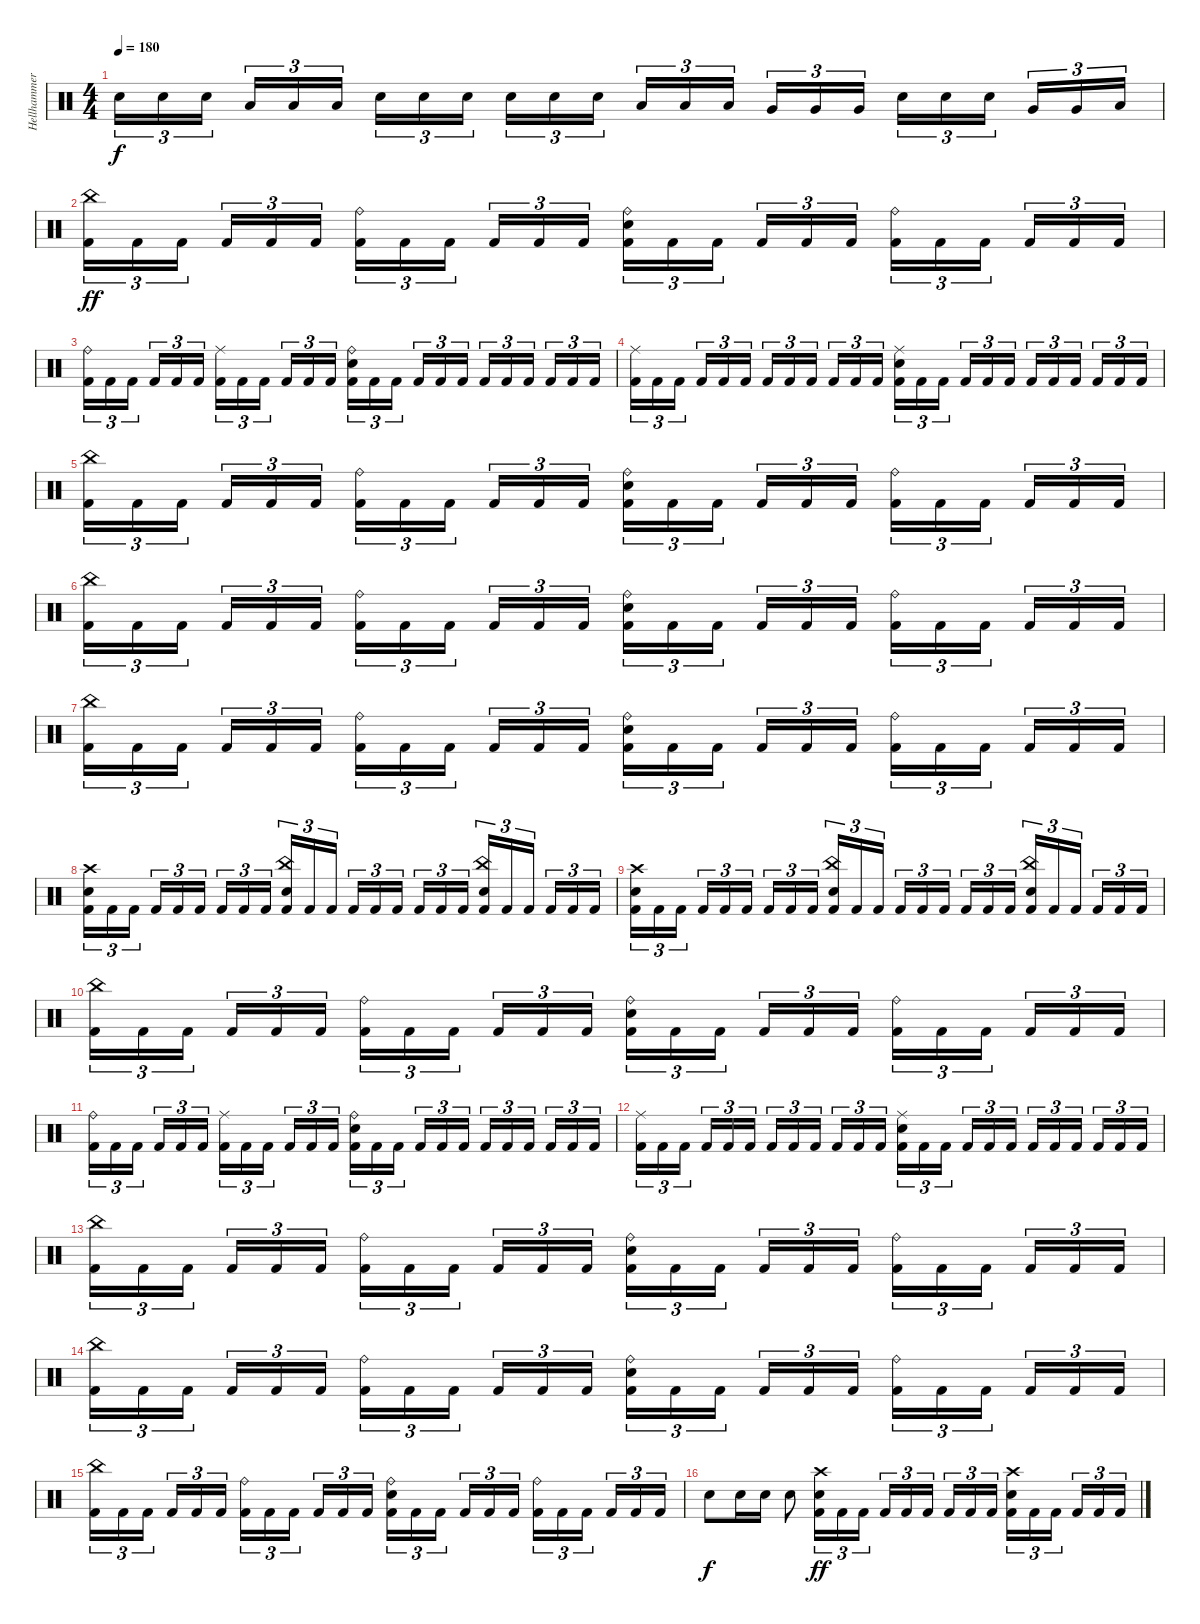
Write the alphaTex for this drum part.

\track ("Hellhammer" "Hellhammer") {instrument percussion}
\staff {score}
\articulation defaults
\ts (4 4)
\tempo 180
\clef neutral
\ks c "Electric Snare (hit)".16{tu (3 2) dy f} "Electric Snare (hit)".16{tu (3 2)} "Electric Snare (hit)".16{tu (3 2) beam splitsecondary} "Low Tom (hit)".16{tu (3 2)} "Low Tom (hit)".16{tu (3 2)} "Low Tom (hit)".16{tu (3 2)} "Electric Snare (hit)".16{tu (3 2)} "Electric Snare (hit)".16{tu (3 2)} "Electric Snare (hit)".16{tu (3 2) beam splitsecondary} "Electric Snare (hit)".16{tu (3 2)} "Electric Snare (hit)".16{tu (3 2)} "Electric Snare (hit)".16{tu (3 2)} "Low Tom (hit)".16{tu (3 2)} "Low Tom (hit)".16{tu (3 2)} "Low Tom (hit)".16{tu (3 2) beam splitsecondary} "Very Low Tom (hit)".16{tu (3 2)} "Very Low Tom (hit)".16{tu (3 2)} "Very Low Tom (hit)".16{tu (3 2)} "Electric Snare (hit)".16{tu (3 2)} "Electric Snare (hit)".16{tu (3 2)} "Electric Snare (hit)".16{tu (3 2) beam splitsecondary} "Very Low Tom (hit)".16{tu (3 2)} "Very Low Tom (hit)".16{tu (3 2)} "Low Floor Tom (hit)".16{tu (3 2)}
|
("China (hit)" "Kick (hit) 2").16{tu (3 2) dy ff} "Kick (hit) 2".16{tu (3 2)} "Kick (hit) 2".16{tu (3 2) beam splitsecondary} "Kick (hit) 2".16{tu (3 2)} "Kick (hit) 2".16{tu (3 2)} "Kick (hit) 2".16{tu (3 2)} ("Ride (bell)" "Kick (hit) 2").16{tu (3 2)} "Kick (hit) 2".16{tu (3 2)} "Kick (hit) 2".16{tu (3 2) beam splitsecondary} "Kick (hit) 2".16{tu (3 2)} "Kick (hit) 2".16{tu (3 2)} "Kick (hit) 2".16{tu (3 2)} ("Ride (bell)" "Electric Snare (hit)" "Kick (hit) 2").16{tu (3 2)} "Kick (hit) 2".16{tu (3 2)} "Kick (hit) 2".16{tu (3 2) beam splitsecondary} "Kick (hit) 2".16{tu (3 2)} "Kick (hit) 2".16{tu (3 2)} "Kick (hit) 2".16{tu (3 2)} ("Ride (bell)" "Kick (hit) 2").16{tu (3 2)} "Kick (hit) 2".16{tu (3 2)} "Kick (hit) 2".16{tu (3 2) beam splitsecondary} "Kick (hit) 2".16{tu (3 2)} "Kick (hit) 2".16{tu (3 2)} "Kick (hit) 2".16{tu (3 2)} |
("Ride (bell)" "Kick (hit) 2").16{tu (3 2)} "Kick (hit) 2".16{tu (3 2)} "Kick (hit) 2".16{tu (3 2) beam splitsecondary} "Kick (hit) 2".16{tu (3 2)} "Kick (hit) 2".16{tu (3 2)} "Kick (hit) 2".16{tu (3 2)} ("Ride (middle)" "Kick (hit) 2").16{tu (3 2)} "Kick (hit) 2".16{tu (3 2)} "Kick (hit) 2".16{tu (3 2) beam splitsecondary} "Kick (hit) 2".16{tu (3 2)} "Kick (hit) 2".16{tu (3 2)} "Kick (hit) 2".16{tu (3 2)} ("Ride (bell)" "Electric Snare (hit)" "Kick (hit) 2").16{tu (3 2)} "Kick (hit) 2".16{tu (3 2)} "Kick (hit) 2".16{tu (3 2) beam splitsecondary} "Kick (hit) 2".16{tu (3 2)} "Kick (hit) 2".16{tu (3 2)} "Kick (hit) 2".16{tu (3 2)} "Kick (hit) 2".16{tu (3 2)} "Kick (hit) 2".16{tu (3 2)} "Kick (hit) 2".16{tu (3 2) beam splitsecondary} "Kick (hit) 2".16{tu (3 2)} "Kick (hit) 2".16{tu (3 2)} "Kick (hit) 2".16{tu (3 2)} |
("Ride (middle)" "Kick (hit) 2").16{tu (3 2)} "Kick (hit) 2".16{tu (3 2)} "Kick (hit) 2".16{tu (3 2) beam splitsecondary} "Kick (hit) 2".16{tu (3 2)} "Kick (hit) 2".16{tu (3 2)} "Kick (hit) 2".16{tu (3 2)} "Kick (hit) 2".16{tu (3 2)} "Kick (hit) 2".16{tu (3 2)} "Kick (hit) 2".16{tu (3 2) beam splitsecondary} "Kick (hit) 2".16{tu (3 2)} "Kick (hit) 2".16{tu (3 2)} "Kick (hit) 2".16{tu (3 2)} ("Ride (middle)" "Electric Snare (hit)" "Kick (hit) 2").16{tu (3 2)} "Kick (hit) 2".16{tu (3 2)} "Kick (hit) 2".16{tu (3 2) beam splitsecondary} "Kick (hit) 2".16{tu (3 2)} "Kick (hit) 2".16{tu (3 2)} "Kick (hit) 2".16{tu (3 2)} "Kick (hit) 2".16{tu (3 2)} "Kick (hit) 2".16{tu (3 2)} "Kick (hit) 2".16{tu (3 2) beam splitsecondary} "Kick (hit) 2".16{tu (3 2)} "Kick (hit) 2".16{tu (3 2)} "Kick (hit) 2".16{tu (3 2)} |
("China (hit)" "Kick (hit) 2").16{tu (3 2)} "Kick (hit) 2".16{tu (3 2)} "Kick (hit) 2".16{tu (3 2) beam splitsecondary} "Kick (hit) 2".16{tu (3 2)} "Kick (hit) 2".16{tu (3 2)} "Kick (hit) 2".16{tu (3 2)} ("Ride (bell)" "Kick (hit) 2").16{tu (3 2)} "Kick (hit) 2".16{tu (3 2)} "Kick (hit) 2".16{tu (3 2) beam splitsecondary} "Kick (hit) 2".16{tu (3 2)} "Kick (hit) 2".16{tu (3 2)} "Kick (hit) 2".16{tu (3 2)} ("Ride (bell)" "Electric Snare (hit)" "Kick (hit) 2").16{tu (3 2)} "Kick (hit) 2".16{tu (3 2)} "Kick (hit) 2".16{tu (3 2) beam splitsecondary} "Kick (hit) 2".16{tu (3 2)} "Kick (hit) 2".16{tu (3 2)} "Kick (hit) 2".16{tu (3 2)} ("Ride (bell)" "Kick (hit) 2").16{tu (3 2)} "Kick (hit) 2".16{tu (3 2)} "Kick (hit) 2".16{tu (3 2) beam splitsecondary} "Kick (hit) 2".16{tu (3 2)} "Kick (hit) 2".16{tu (3 2)} "Kick (hit) 2".16{tu (3 2)} |
("China (hit)" "Kick (hit) 2").16{tu (3 2)} "Kick (hit) 2".16{tu (3 2)} "Kick (hit) 2".16{tu (3 2) beam splitsecondary} "Kick (hit) 2".16{tu (3 2)} "Kick (hit) 2".16{tu (3 2)} "Kick (hit) 2".16{tu (3 2)} ("Ride (bell)" "Kick (hit) 2").16{tu (3 2)} "Kick (hit) 2".16{tu (3 2)} "Kick (hit) 2".16{tu (3 2) beam splitsecondary} "Kick (hit) 2".16{tu (3 2)} "Kick (hit) 2".16{tu (3 2)} "Kick (hit) 2".16{tu (3 2)} ("Ride (bell)" "Electric Snare (hit)" "Kick (hit) 2").16{tu (3 2)} "Kick (hit) 2".16{tu (3 2)} "Kick (hit) 2".16{tu (3 2) beam splitsecondary} "Kick (hit) 2".16{tu (3 2)} "Kick (hit) 2".16{tu (3 2)} "Kick (hit) 2".16{tu (3 2)} ("Ride (bell)" "Kick (hit) 2").16{tu (3 2)} "Kick (hit) 2".16{tu (3 2)} "Kick (hit) 2".16{tu (3 2) beam splitsecondary} "Kick (hit) 2".16{tu (3 2)} "Kick (hit) 2".16{tu (3 2)} "Kick (hit) 2".16{tu (3 2)} |
("China (hit)" "Kick (hit) 2").16{tu (3 2)} "Kick (hit) 2".16{tu (3 2)} "Kick (hit) 2".16{tu (3 2) beam splitsecondary} "Kick (hit) 2".16{tu (3 2)} "Kick (hit) 2".16{tu (3 2)} "Kick (hit) 2".16{tu (3 2)} ("Ride (bell)" "Kick (hit) 2").16{tu (3 2)} "Kick (hit) 2".16{tu (3 2)} "Kick (hit) 2".16{tu (3 2) beam splitsecondary} "Kick (hit) 2".16{tu (3 2)} "Kick (hit) 2".16{tu (3 2)} "Kick (hit) 2".16{tu (3 2)} ("Ride (bell)" "Electric Snare (hit)" "Kick (hit) 2").16{tu (3 2)} "Kick (hit) 2".16{tu (3 2)} "Kick (hit) 2".16{tu (3 2) beam splitsecondary} "Kick (hit) 2".16{tu (3 2)} "Kick (hit) 2".16{tu (3 2)} "Kick (hit) 2".16{tu (3 2)} ("Ride (bell)" "Kick (hit) 2").16{tu (3 2)} "Kick (hit) 2".16{tu (3 2)} "Kick (hit) 2".16{tu (3 2) beam splitsecondary} "Kick (hit) 2".16{tu (3 2)} "Kick (hit) 2".16{tu (3 2)} "Kick (hit) 2".16{tu (3 2)} |
("Crash high (hit)" "Electric Snare (hit)" "Kick (hit) 2").16{tu (3 2)} "Kick (hit) 2".16{tu (3 2)} "Kick (hit) 2".16{tu (3 2) beam splitsecondary} "Kick (hit) 2".16{tu (3 2)} "Kick (hit) 2".16{tu (3 2)} "Kick (hit) 2".16{tu (3 2)} "Kick (hit) 2".16{tu (3 2)} "Kick (hit) 2".16{tu (3 2)} "Kick (hit) 2".16{tu (3 2) beam splitsecondary} ("China (hit)" "Electric Snare (hit)" "Kick (hit) 2").16{tu (3 2)} "Kick (hit) 2".16{tu (3 2)} "Kick (hit) 2".16{tu (3 2)} "Kick (hit) 2".16{tu (3 2)} "Kick (hit) 2".16{tu (3 2)} "Kick (hit) 2".16{tu (3 2) beam splitsecondary} "Kick (hit) 2".16{tu (3 2)} "Kick (hit) 2".16{tu (3 2)} "Kick (hit) 2".16{tu (3 2)} ("China (hit)" "Electric Snare (hit)" "Kick (hit) 2").16{tu (3 2)} "Kick (hit) 2".16{tu (3 2)} "Kick (hit) 2".16{tu (3 2) beam splitsecondary} "Kick (hit) 2".16{tu (3 2)} "Kick (hit) 2".16{tu (3 2)} "Kick (hit) 2".16{tu (3 2)} |
("Crash high (hit)" "Electric Snare (hit)" "Kick (hit) 2").16{tu (3 2)} "Kick (hit) 2".16{tu (3 2)} "Kick (hit) 2".16{tu (3 2) beam splitsecondary} "Kick (hit) 2".16{tu (3 2)} "Kick (hit) 2".16{tu (3 2)} "Kick (hit) 2".16{tu (3 2)} "Kick (hit) 2".16{tu (3 2)} "Kick (hit) 2".16{tu (3 2)} "Kick (hit) 2".16{tu (3 2) beam splitsecondary} ("China (hit)" "Electric Snare (hit)" "Kick (hit) 2").16{tu (3 2)} "Kick (hit) 2".16{tu (3 2)} "Kick (hit) 2".16{tu (3 2)} "Kick (hit) 2".16{tu (3 2)} "Kick (hit) 2".16{tu (3 2)} "Kick (hit) 2".16{tu (3 2) beam splitsecondary} "Kick (hit) 2".16{tu (3 2)} "Kick (hit) 2".16{tu (3 2)} "Kick (hit) 2".16{tu (3 2)} ("China (hit)" "Electric Snare (hit)" "Kick (hit) 2").16{tu (3 2)} "Kick (hit) 2".16{tu (3 2)} "Kick (hit) 2".16{tu (3 2) beam splitsecondary} "Kick (hit) 2".16{tu (3 2)} "Kick (hit) 2".16{tu (3 2)} "Kick (hit) 2".16{tu (3 2)} |
("China (hit)" "Kick (hit) 2").16{tu (3 2)} "Kick (hit) 2".16{tu (3 2)} "Kick (hit) 2".16{tu (3 2) beam splitsecondary} "Kick (hit) 2".16{tu (3 2)} "Kick (hit) 2".16{tu (3 2)} "Kick (hit) 2".16{tu (3 2)} ("Ride (bell)" "Kick (hit) 2").16{tu (3 2)} "Kick (hit) 2".16{tu (3 2)} "Kick (hit) 2".16{tu (3 2) beam splitsecondary} "Kick (hit) 2".16{tu (3 2)} "Kick (hit) 2".16{tu (3 2)} "Kick (hit) 2".16{tu (3 2)} ("Ride (bell)" "Electric Snare (hit)" "Kick (hit) 2").16{tu (3 2)} "Kick (hit) 2".16{tu (3 2)} "Kick (hit) 2".16{tu (3 2) beam splitsecondary} "Kick (hit) 2".16{tu (3 2)} "Kick (hit) 2".16{tu (3 2)} "Kick (hit) 2".16{tu (3 2)} ("Ride (bell)" "Kick (hit) 2").16{tu (3 2)} "Kick (hit) 2".16{tu (3 2)} "Kick (hit) 2".16{tu (3 2) beam splitsecondary} "Kick (hit) 2".16{tu (3 2)} "Kick (hit) 2".16{tu (3 2)} "Kick (hit) 2".16{tu (3 2)} |
("Ride (bell)" "Kick (hit) 2").16{tu (3 2)} "Kick (hit) 2".16{tu (3 2)} "Kick (hit) 2".16{tu (3 2) beam splitsecondary} "Kick (hit) 2".16{tu (3 2)} "Kick (hit) 2".16{tu (3 2)} "Kick (hit) 2".16{tu (3 2)} ("Ride (middle)" "Kick (hit) 2").16{tu (3 2)} "Kick (hit) 2".16{tu (3 2)} "Kick (hit) 2".16{tu (3 2) beam splitsecondary} "Kick (hit) 2".16{tu (3 2)} "Kick (hit) 2".16{tu (3 2)} "Kick (hit) 2".16{tu (3 2)} ("Ride (bell)" "Electric Snare (hit)" "Kick (hit) 2").16{tu (3 2)} "Kick (hit) 2".16{tu (3 2)} "Kick (hit) 2".16{tu (3 2) beam splitsecondary} "Kick (hit) 2".16{tu (3 2)} "Kick (hit) 2".16{tu (3 2)} "Kick (hit) 2".16{tu (3 2)} "Kick (hit) 2".16{tu (3 2)} "Kick (hit) 2".16{tu (3 2)} "Kick (hit) 2".16{tu (3 2) beam splitsecondary} "Kick (hit) 2".16{tu (3 2)} "Kick (hit) 2".16{tu (3 2)} "Kick (hit) 2".16{tu (3 2)} |
("Ride (middle)" "Kick (hit) 2").16{tu (3 2)} "Kick (hit) 2".16{tu (3 2)} "Kick (hit) 2".16{tu (3 2) beam splitsecondary} "Kick (hit) 2".16{tu (3 2)} "Kick (hit) 2".16{tu (3 2)} "Kick (hit) 2".16{tu (3 2)} "Kick (hit) 2".16{tu (3 2)} "Kick (hit) 2".16{tu (3 2)} "Kick (hit) 2".16{tu (3 2) beam splitsecondary} "Kick (hit) 2".16{tu (3 2)} "Kick (hit) 2".16{tu (3 2)} "Kick (hit) 2".16{tu (3 2)} ("Ride (middle)" "Electric Snare (hit)" "Kick (hit) 2").16{tu (3 2)} "Kick (hit) 2".16{tu (3 2)} "Kick (hit) 2".16{tu (3 2) beam splitsecondary} "Kick (hit) 2".16{tu (3 2)} "Kick (hit) 2".16{tu (3 2)} "Kick (hit) 2".16{tu (3 2)} "Kick (hit) 2".16{tu (3 2)} "Kick (hit) 2".16{tu (3 2)} "Kick (hit) 2".16{tu (3 2) beam splitsecondary} "Kick (hit) 2".16{tu (3 2)} "Kick (hit) 2".16{tu (3 2)} "Kick (hit) 2".16{tu (3 2)} |
("China (hit)" "Kick (hit) 2").16{tu (3 2)} "Kick (hit) 2".16{tu (3 2)} "Kick (hit) 2".16{tu (3 2) beam splitsecondary} "Kick (hit) 2".16{tu (3 2)} "Kick (hit) 2".16{tu (3 2)} "Kick (hit) 2".16{tu (3 2)} ("Ride (bell)" "Kick (hit) 2").16{tu (3 2)} "Kick (hit) 2".16{tu (3 2)} "Kick (hit) 2".16{tu (3 2) beam splitsecondary} "Kick (hit) 2".16{tu (3 2)} "Kick (hit) 2".16{tu (3 2)} "Kick (hit) 2".16{tu (3 2)} ("Ride (bell)" "Electric Snare (hit)" "Kick (hit) 2").16{tu (3 2)} "Kick (hit) 2".16{tu (3 2)} "Kick (hit) 2".16{tu (3 2) beam splitsecondary} "Kick (hit) 2".16{tu (3 2)} "Kick (hit) 2".16{tu (3 2)} "Kick (hit) 2".16{tu (3 2)} ("Ride (bell)" "Kick (hit) 2").16{tu (3 2)} "Kick (hit) 2".16{tu (3 2)} "Kick (hit) 2".16{tu (3 2) beam splitsecondary} "Kick (hit) 2".16{tu (3 2)} "Kick (hit) 2".16{tu (3 2)} "Kick (hit) 2".16{tu (3 2)} |
("China (hit)" "Kick (hit) 2").16{tu (3 2)} "Kick (hit) 2".16{tu (3 2)} "Kick (hit) 2".16{tu (3 2) beam splitsecondary} "Kick (hit) 2".16{tu (3 2)} "Kick (hit) 2".16{tu (3 2)} "Kick (hit) 2".16{tu (3 2)} ("Ride (bell)" "Kick (hit) 2").16{tu (3 2)} "Kick (hit) 2".16{tu (3 2)} "Kick (hit) 2".16{tu (3 2) beam splitsecondary} "Kick (hit) 2".16{tu (3 2)} "Kick (hit) 2".16{tu (3 2)} "Kick (hit) 2".16{tu (3 2)} ("Ride (bell)" "Electric Snare (hit)" "Kick (hit) 2").16{tu (3 2)} "Kick (hit) 2".16{tu (3 2)} "Kick (hit) 2".16{tu (3 2) beam splitsecondary} "Kick (hit) 2".16{tu (3 2)} "Kick (hit) 2".16{tu (3 2)} "Kick (hit) 2".16{tu (3 2)} ("Ride (bell)" "Kick (hit) 2").16{tu (3 2)} "Kick (hit) 2".16{tu (3 2)} "Kick (hit) 2".16{tu (3 2) beam splitsecondary} "Kick (hit) 2".16{tu (3 2)} "Kick (hit) 2".16{tu (3 2)} "Kick (hit) 2".16{tu (3 2)} |
("China (hit)" "Kick (hit) 2").16{tu (3 2)} "Kick (hit) 2".16{tu (3 2)} "Kick (hit) 2".16{tu (3 2) beam splitsecondary} "Kick (hit) 2".16{tu (3 2)} "Kick (hit) 2".16{tu (3 2)} "Kick (hit) 2".16{tu (3 2)} ("Ride (bell)" "Kick (hit) 2").16{tu (3 2)} "Kick (hit) 2".16{tu (3 2)} "Kick (hit) 2".16{tu (3 2) beam splitsecondary} "Kick (hit) 2".16{tu (3 2)} "Kick (hit) 2".16{tu (3 2)} "Kick (hit) 2".16{tu (3 2)} ("Ride (bell)" "Electric Snare (hit)" "Kick (hit) 2").16{tu (3 2)} "Kick (hit) 2".16{tu (3 2)} "Kick (hit) 2".16{tu (3 2) beam splitsecondary} "Kick (hit) 2".16{tu (3 2)} "Kick (hit) 2".16{tu (3 2)} "Kick (hit) 2".16{tu (3 2)} ("Ride (bell)" "Kick (hit) 2").16{tu (3 2)} "Kick (hit) 2".16{tu (3 2)} "Kick (hit) 2".16{tu (3 2) beam splitsecondary} "Kick (hit) 2".16{tu (3 2)} "Kick (hit) 2".16{tu (3 2)} "Kick (hit) 2".16{tu (3 2)} |
"Electric Snare (hit)".8{dy f} "Electric Snare (hit)".16 "Electric Snare (hit)".16 "Electric Snare (hit)".8 ("Crash high (hit)" "Electric Snare (hit)" "Kick (hit) 2").16{tu (3 2) dy ff} "Kick (hit) 2".16{tu (3 2)} "Kick (hit) 2".16{tu (3 2)} "Kick (hit) 2".16{tu (3 2)} "Kick (hit) 2".16{tu (3 2)} "Kick (hit) 2".16{tu (3 2) beam splitsecondary} "Kick (hit) 2".16{tu (3 2)} "Kick (hit) 2".16{tu (3 2)} "Kick (hit) 2".16{tu (3 2)} ("Crash high (hit)" "Electric Snare (hit)" "Kick (hit) 2").16{tu (3 2)} "Kick (hit) 2".16{tu (3 2)} "Kick (hit) 2".16{tu (3 2) beam splitsecondary} "Kick (hit) 2".16{tu (3 2)} "Kick (hit) 2".16{tu (3 2)} "Kick (hit) 2".16{tu (3 2)}
